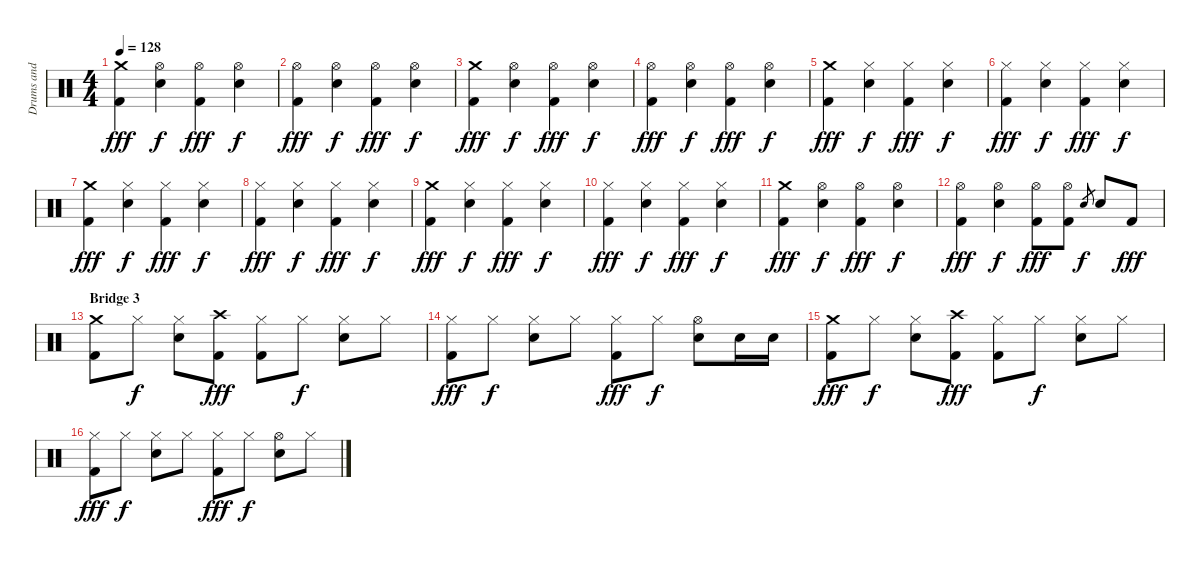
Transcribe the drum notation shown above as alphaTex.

\track ("Drums and Percussion" "Drums and ") {instrument percussion}
\staff {score}
\articulation defaults
\ts (4 4)
\tempo 128
\clef neutral
\ks c
("Crash medium (hit)" "Kick (hit) 2").4{dy fff} ("Hi-Hat (open)" "Electric Snare (hit)").4{dy f} ("Hi-Hat (open)" "Kick (hit) 2").4{dy fff} ("Hi-Hat (open)" "Electric Snare (hit)").4{dy f} |
("Hi-Hat (open)" "Kick (hit) 2").4{dy fff} ("Hi-Hat (open)" "Electric Snare (hit)").4{dy f} ("Hi-Hat (open)" "Kick (hit) 2").4{dy fff} ("Hi-Hat (open)" "Electric Snare (hit)").4{dy f} |
("Crash medium (hit)" "Kick (hit) 2").4{dy fff} ("Hi-Hat (open)" "Electric Snare (hit)").4{dy f} ("Hi-Hat (open)" "Kick (hit) 2").4{dy fff} ("Hi-Hat (open)" "Electric Snare (hit)").4{dy f} |
("Hi-Hat (open)" "Kick (hit) 2").4{dy fff} ("Hi-Hat (open)" "Electric Snare (hit)").4{dy f} ("Hi-Hat (open)" "Kick (hit) 2").4{dy fff} ("Hi-Hat (open)" "Electric Snare (hit)").4{dy f} |
("Crash medium (hit)" "Kick (hit) 2").4{dy fff} ("Hi-Hat (closed)" "Electric Snare (hit)").4{dy f} ("Hi-Hat (closed)" "Kick (hit) 2").4{dy fff} ("Hi-Hat (closed)" "Electric Snare (hit)").4{dy f} |
("Hi-Hat (closed)" "Kick (hit) 2").4{dy fff} ("Hi-Hat (closed)" "Electric Snare (hit)").4{dy f} ("Hi-Hat (closed)" "Kick (hit) 2").4{dy fff} ("Hi-Hat (closed)" "Electric Snare (hit)").4{dy f} |
("Crash medium (hit)" "Kick (hit) 2").4{dy fff} ("Hi-Hat (closed)" "Electric Snare (hit)").4{dy f} ("Hi-Hat (closed)" "Kick (hit) 2").4{dy fff} ("Hi-Hat (closed)" "Electric Snare (hit)").4{dy f} |
("Hi-Hat (closed)" "Kick (hit) 2").4{dy fff} ("Hi-Hat (closed)" "Electric Snare (hit)").4{dy f} ("Hi-Hat (closed)" "Kick (hit) 2").4{dy fff} ("Hi-Hat (closed)" "Electric Snare (hit)").4{dy f} |
("Crash medium (hit)" "Kick (hit) 2").4{dy fff} ("Hi-Hat (closed)" "Electric Snare (hit)").4{dy f} ("Hi-Hat (closed)" "Kick (hit) 2").4{dy fff} ("Hi-Hat (closed)" "Electric Snare (hit)").4{dy f} |
("Hi-Hat (closed)" "Kick (hit) 2").4{dy fff} ("Hi-Hat (closed)" "Electric Snare (hit)").4{dy f} ("Hi-Hat (closed)" "Kick (hit) 2").4{dy fff} ("Hi-Hat (closed)" "Electric Snare (hit)").4{dy f} |
("Crash medium (hit)" "Kick (hit) 2").4{dy fff} ("Hi-Hat (open)" "Electric Snare (hit)").4{dy f} ("Hi-Hat (open)" "Kick (hit) 2").4{dy fff} ("Hi-Hat (open)" "Electric Snare (hit)").4{dy f} |
("Hi-Hat (open)" "Kick (hit) 2").4{dy fff} ("Hi-Hat (open)" "Electric Snare (hit)").4{dy f} ("Hi-Hat (open)" "Kick (hit) 2").8{dy fff} ("Hi-Hat (open)" "Kick (hit) 2").8 "Electric Snare (hit)".8{gr dy f} "Electric Snare (hit)".8 "Kick (hit) 2".8{dy fff} |
\section ("" "Bridge 3")
("Crash medium (hit)" "Kick (hit) 2").8 "Hi-Hat (closed)".8{dy f} ("Hi-Hat (closed)" "Electric Snare (hit)").8 ("Crash high (hit)" "Kick (hit) 2").8{dy fff} ("Hi-Hat (closed)" "Kick (hit) 2").8 "Hi-Hat (closed)".8{dy f} ("Hi-Hat (closed)" "Electric Snare (hit)").8 "Hi-Hat (closed)".8 |
("Hi-Hat (closed)" "Kick (hit) 2").8{dy fff} "Hi-Hat (closed)".8{dy f} ("Hi-Hat (closed)" "Electric Snare (hit)").8 "Hi-Hat (closed)".8 ("Hi-Hat (closed)" "Kick (hit) 2").8{dy fff} "Hi-Hat (closed)".8{dy f} ("Hi-Hat (open)" "Electric Snare (hit)").8 "Electric Snare (hit)".16 "Electric Snare (hit)".16 |
("Crash medium (hit)" "Kick (hit) 2").8{dy fff} "Hi-Hat (closed)".8{dy f} ("Hi-Hat (closed)" "Electric Snare (hit)").8 ("Crash high (hit)" "Kick (hit) 2").8{dy fff} ("Hi-Hat (closed)" "Kick (hit) 2").8 "Hi-Hat (closed)".8{dy f} ("Hi-Hat (closed)" "Electric Snare (hit)").8 "Hi-Hat (closed)".8 |
("Hi-Hat (closed)" "Kick (hit) 2").8{dy fff} "Hi-Hat (closed)".8{dy f} ("Hi-Hat (closed)" "Electric Snare (hit)").8 "Hi-Hat (closed)".8 ("Hi-Hat (closed)" "Kick (hit) 2").8{dy fff} "Hi-Hat (closed)".8{dy f} ("Hi-Hat (open)" "Electric Snare (hit)").8 "Hi-Hat (closed)".8
